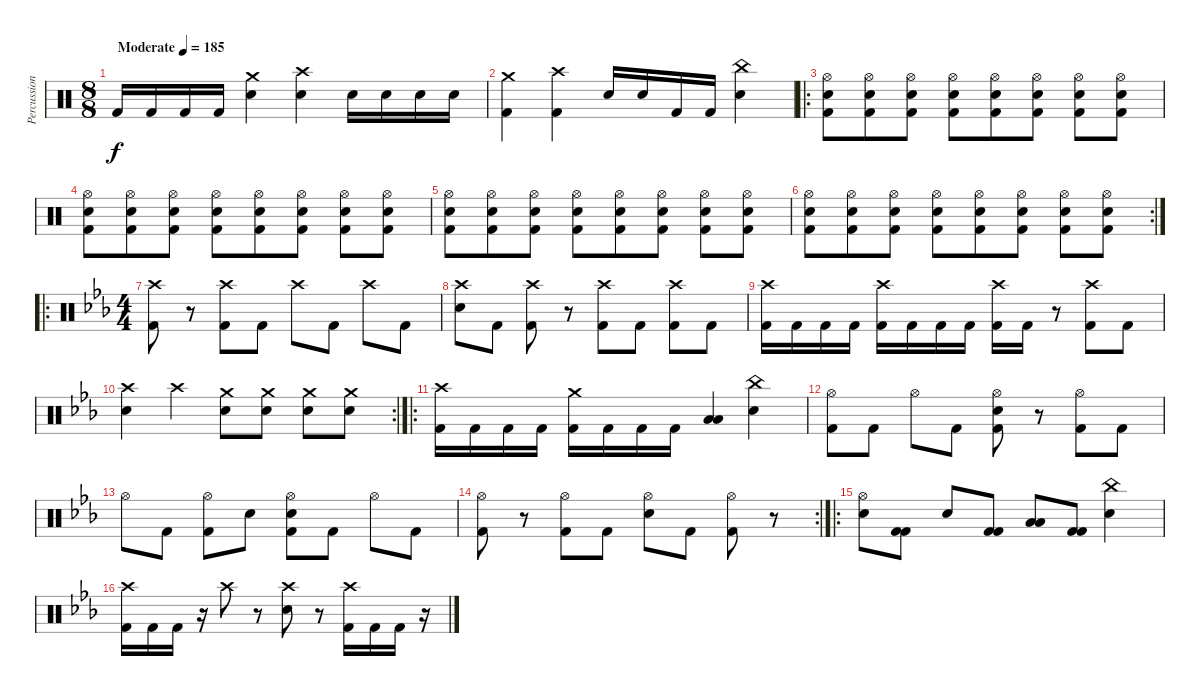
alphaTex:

\track ("Percussion" "Percussion") {instrument percussion}
\staff {score}
\articulation defaults
\ts (8 8)
\tempo (185 "Moderate")
\clef neutral
\ks c "Kick (hit) 2".16{dy f} "Kick (hit) 2".16 "Kick (hit) 2".16 "Kick (hit) 2".16
("Crash medium (hit)" "Electric Snare (hit)").4 ("Crash high (hit)" "Electric Snare (hit)").4 "Electric Snare (hit)".16 "Electric Snare (hit)".16 "Electric Snare (hit)".16 "Electric Snare (hit)".16 |
("Crash medium (hit)" "Kick (hit) 2").4 ("Crash high (hit)" "Kick (hit) 2").4 "Electric Snare (hit)".16 "Electric Snare (hit)".16 "Kick (hit) 2".16 "Kick (hit) 2".16 ("China (hit)" "Electric Snare (hit)").4 |
\ro
("Hi-Hat (open)" "Electric Snare (hit)" "Kick (hit) 2").8 ("Hi-Hat (open)" "Electric Snare (hit)" "Kick (hit) 2").8 ("Hi-Hat (open)" "Electric Snare (hit)" "Kick (hit) 2").8 ("Hi-Hat (open)" "Electric Snare (hit)" "Kick (hit) 2").8 ("Hi-Hat (open)" "Electric Snare (hit)" "Kick (hit) 2").8 ("Hi-Hat (open)" "Electric Snare (hit)" "Kick (hit) 2").8 ("Hi-Hat (open)" "Electric Snare (hit)" "Kick (hit) 2").8 ("Hi-Hat (open)" "Electric Snare (hit)" "Kick (hit) 2").8 |
("Hi-Hat (open)" "Electric Snare (hit)" "Kick (hit) 2").8 ("Hi-Hat (open)" "Electric Snare (hit)" "Kick (hit) 2").8 ("Hi-Hat (open)" "Electric Snare (hit)" "Kick (hit) 2").8 ("Hi-Hat (open)" "Electric Snare (hit)" "Kick (hit) 2").8 ("Hi-Hat (open)" "Electric Snare (hit)" "Kick (hit) 2").8 ("Hi-Hat (open)" "Electric Snare (hit)" "Kick (hit) 2").8 ("Hi-Hat (open)" "Electric Snare (hit)" "Kick (hit) 2").8 ("Hi-Hat (open)" "Electric Snare (hit)" "Kick (hit) 2").8 |
("Hi-Hat (open)" "Electric Snare (hit)" "Kick (hit) 2").8 ("Hi-Hat (open)" "Electric Snare (hit)" "Kick (hit) 2").8 ("Hi-Hat (open)" "Electric Snare (hit)" "Kick (hit) 2").8 ("Hi-Hat (open)" "Electric Snare (hit)" "Kick (hit) 2").8 ("Hi-Hat (open)" "Electric Snare (hit)" "Kick (hit) 2").8 ("Hi-Hat (open)" "Electric Snare (hit)" "Kick (hit) 2").8 ("Hi-Hat (open)" "Electric Snare (hit)" "Kick (hit) 2").8 ("Hi-Hat (open)" "Electric Snare (hit)" "Kick (hit) 2").8 |
\rc 2
("Hi-Hat (open)" "Electric Snare (hit)" "Kick (hit) 2").8 ("Hi-Hat (open)" "Electric Snare (hit)" "Kick (hit) 2").8 ("Hi-Hat (open)" "Electric Snare (hit)" "Kick (hit) 2").8 ("Hi-Hat (open)" "Electric Snare (hit)" "Kick (hit) 2").8 ("Hi-Hat (open)" "Electric Snare (hit)" "Kick (hit) 2").8 ("Hi-Hat (open)" "Electric Snare (hit)" "Kick (hit) 2").8 ("Hi-Hat (open)" "Electric Snare (hit)" "Kick (hit) 2").8 ("Hi-Hat (open)" "Electric Snare (hit)" "Kick (hit) 2").8 |
\ro
\ts (4 4)
\ks cminor
("Crash high (hit)" "Kick (hit) 2").8 r.8 ("Crash high (hit)" "Kick (hit) 2").8 "Kick (hit) 2".8 "Crash high (hit)".8 "Kick (hit) 2".8 "Crash high (hit)".8 "Kick (hit) 2".8 |
("Crash high (hit)" "Electric Snare (hit)").8 "Kick (hit) 2".8 ("Crash high (hit)" "Kick (hit) 2").8 r.8 ("Crash high (hit)" "Kick (hit) 2").8 "Kick (hit) 2".8 ("Crash high (hit)" "Kick (hit) 2").8 "Kick (hit) 2".8 |
("Crash high (hit)" "Kick (hit) 2").16 "Kick (hit) 2".16 "Kick (hit) 2".16 "Kick (hit) 2".16 ("Crash high (hit)" "Kick (hit) 2").16 "Kick (hit) 2".16 "Kick (hit) 2".16 "Kick (hit) 2".16 ("Crash high (hit)" "Kick (hit) 2").16 "Kick (hit) 2".16 r.8 ("Crash high (hit)" "Kick (hit) 2").8 "Kick (hit) 2".8 |
\rc 2
("Crash high (hit)" "Electric Snare (hit)").4 "Crash high (hit)".4 ("Crash medium (hit)" "Electric Snare (hit)").8 ("Crash medium (hit)" "Electric Snare (hit)").8 ("Crash medium (hit)" "Electric Snare (hit)").8 ("Crash medium (hit)" "Electric Snare (hit)").8 |
\ro
("Crash high (hit)" "Kick (hit) 2").16 "Kick (hit) 2".16 "Kick (hit) 2".16 "Kick (hit) 2".16 ("Crash medium (hit)" "Kick (hit) 2").16 "Kick (hit) 2".16 "Kick (hit) 2".16 "Kick (hit) 2".16 ("Low Floor Tom (hit)" "Low Tom (hit)").4 ("China (hit)" "Electric Snare (hit)").4 |
("Hi-Hat (open)" "Kick (hit) 2").8 "Kick (hit) 2".8 "Hi-Hat (open)".8 "Kick (hit) 2".8 ("Hi-Hat (open)" "Electric Snare (hit)" "Kick (hit) 2").8 r.8 ("Hi-Hat (open)" "Kick (hit) 2").8 "Kick (hit) 2".8 |
"Hi-Hat (open)".8 "Kick (hit) 2".8 ("Hi-Hat (open)" "Kick (hit) 2").8 "Electric Snare (hit)".8 ("Hi-Hat (open)" "Electric Snare (hit)" "Kick (hit) 2").8 "Kick (hit) 2".8 "Hi-Hat (open)".8 "Kick (hit) 2".8 |
\rc 2
("Hi-Hat (open)" "Kick (hit) 2").8 r.8 ("Hi-Hat (open)" "Kick (hit) 2").8 "Kick (hit) 2".8 ("Hi-Hat (open)" "Electric Snare (hit)").8 "Kick (hit) 2".8 ("Hi-Hat (open)" "Kick (hit) 2").8 r.8 |
\ro
("Hi-Hat (open)" "Electric Snare (hit)").8 ("Kick (hit) 2" "Kick (hit) 2").8 "Electric Snare (hit)".8 ("Kick (hit) 2" "Kick (hit) 2").8 ("Low Floor Tom (hit)" "Low Tom (hit)").8 ("Kick (hit) 2" "Kick (hit) 2").8 ("China (hit)" "Electric Snare (hit)").4 |
("Crash high (hit)" "Kick (hit) 2").16 "Kick (hit) 2".16 "Kick (hit) 2".16 r.16 "Crash high (hit)".8 r.8 ("Crash high (hit)" "Electric Snare (hit)").8 r.8 ("Crash high (hit)" "Kick (hit) 2").16 "Kick (hit) 2".16 "Kick (hit) 2".16 r.16
